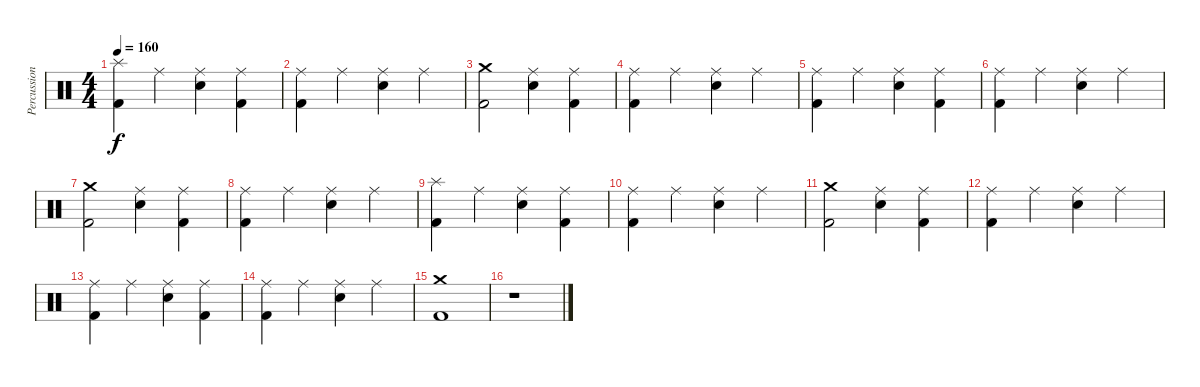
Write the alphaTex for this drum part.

\track ("Percussion" "Percussion") {instrument percussion}
\staff {score}
\articulation defaults
\ts (4 4)
\tempo 160
\clef neutral
\ks c
("Splash (hit)" "Kick (hit) 2").4{dy f} "Ride (middle)".4 ("Ride (middle)" "Electric Snare (hit)").4 ("Ride (middle)" "Kick (hit) 2").4 |
("Ride (middle)" "Kick (hit) 2").4 "Ride (middle)".4 ("Ride (middle)" "Electric Snare (hit)").4 "Ride (middle)".4 |
("Crash medium (hit)" "Kick (hit) 2").2 ("Ride (middle)" "Electric Snare (hit)").4 ("Ride (middle)" "Kick (hit) 2").4 |
("Ride (middle)" "Kick (hit) 2").4 "Ride (middle)".4 ("Ride (middle)" "Electric Snare (hit)").4 "Ride (middle)".4 |
("Ride (middle)" "Kick (hit) 2").4 "Ride (middle)".4 ("Ride (middle)" "Electric Snare (hit)").4 ("Ride (middle)" "Kick (hit) 2").4 |
("Ride (middle)" "Kick (hit) 2").4 "Ride (middle)".4 ("Ride (middle)" "Electric Snare (hit)").4 "Ride (middle)".4 |
("Crash medium (hit)" "Kick (hit) 2").2 ("Ride (middle)" "Electric Snare (hit)").4 ("Ride (middle)" "Kick (hit) 2").4 |
("Ride (middle)" "Kick (hit) 2").4 "Ride (middle)".4 ("Ride (middle)" "Electric Snare (hit)").4 "Ride (middle)".4 |
("Splash (hit)" "Kick (hit) 2").4 "Ride (middle)".4 ("Ride (middle)" "Electric Snare (hit)").4 ("Ride (middle)" "Kick (hit) 2").4 |
("Ride (middle)" "Kick (hit) 2").4 "Ride (middle)".4 ("Ride (middle)" "Electric Snare (hit)").4 "Ride (middle)".4 |
("Crash medium (hit)" "Kick (hit) 2").2 ("Ride (middle)" "Electric Snare (hit)").4 ("Ride (middle)" "Kick (hit) 2").4 |
("Ride (middle)" "Kick (hit) 2").4 "Ride (middle)".4 ("Ride (middle)" "Electric Snare (hit)").4 "Ride (middle)".4 |
("Ride (middle)" "Kick (hit) 2").4 "Ride (middle)".4 ("Ride (middle)" "Electric Snare (hit)").4 ("Ride (middle)" "Kick (hit) 2").4 |
("Ride (middle)" "Kick (hit) 2").4 "Ride (middle)".4 ("Ride (middle)" "Electric Snare (hit)").4 "Ride (middle)".4 |
("Crash medium (hit)" "Kick (hit) 2").1 |
r.1
